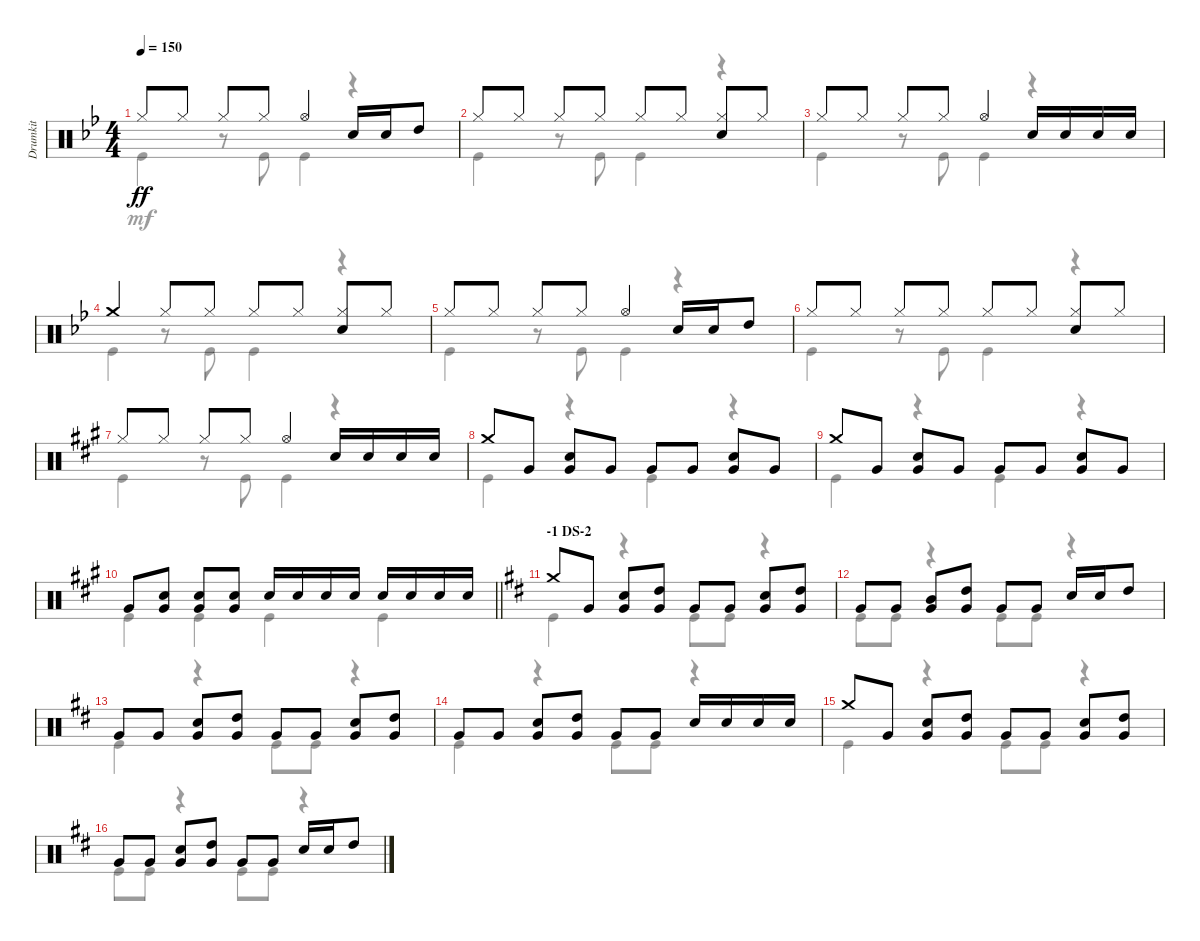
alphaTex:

\track ("Drumkit" "Drumkit") {instrument percussion}
\staff {score}
\articulation defaults
\voice
\ts (4 4)
\tempo 150
\clef neutral
\ks bb "Hi-Hat (closed)".8{dy ff} "Hi-Hat (closed)".8 "Hi-Hat (closed)".8 "Hi-Hat (closed)".8 "Hi-Hat (open)".4 "Snare (hit) 2".16 "Snare (hit) 2".16 "High Tom (hit)".8
|
"Hi-Hat (closed)".8 "Hi-Hat (closed)".8 "Hi-Hat (closed)".8 "Hi-Hat (closed)".8 "Hi-Hat (closed)".8 "Hi-Hat (closed)".8 ("Hi-Hat (closed)" "Snare (hit) 2").8 "Hi-Hat (closed)".8 |
"Hi-Hat (closed)".8 "Hi-Hat (closed)".8 "Hi-Hat (closed)".8 "Hi-Hat (closed)".8 "Hi-Hat (open)".4 "Snare (hit) 2".16 "Snare (hit) 2".16 "Snare (hit) 2".16 "Snare (hit) 2".16 |
"Crash medium (hit)".4 "Hi-Hat (closed)".8 "Hi-Hat (closed)".8 "Hi-Hat (closed)".8 "Hi-Hat (closed)".8 ("Hi-Hat (closed)" "Snare (hit) 2").8 "Hi-Hat (closed)".8 |
"Hi-Hat (closed)".8 "Hi-Hat (closed)".8 "Hi-Hat (closed)".8 "Hi-Hat (closed)".8 "Hi-Hat (open)".4 "Snare (hit) 2".16 "Snare (hit) 2".16 "High Tom (hit)".8 |
"Hi-Hat (closed)".8 "Hi-Hat (closed)".8 "Hi-Hat (closed)".8 "Hi-Hat (closed)".8 "Hi-Hat (closed)".8 "Hi-Hat (closed)".8 ("Hi-Hat (closed)" "Snare (hit) 2").8 "Hi-Hat (closed)".8 |
\ks a "Hi-Hat (closed)".8 "Hi-Hat (closed)".8 "Hi-Hat (closed)".8 "Hi-Hat (closed)".8 "Hi-Hat (open)".4 "Snare (hit) 2".16 "Snare (hit) 2".16 "Snare (hit) 2".16 "Snare (hit) 2".16
|
"Crash medium (hit)".8 "Very Low Tom (hit)".8 ("Very Low Tom (hit)" "Snare (hit) 2").8 "Very Low Tom (hit)".8 "Very Low Tom (hit)".8 "Very Low Tom (hit)".8 ("Very Low Tom (hit)" "Snare (hit) 2").8 "Very Low Tom (hit)".8 |
"Crash medium (hit)".8 "Very Low Tom (hit)".8 ("Very Low Tom (hit)" "Snare (hit) 2").8 "Very Low Tom (hit)".8 "Very Low Tom (hit)".8 "Very Low Tom (hit)".8 ("Very Low Tom (hit)" "Snare (hit) 2").8 "Very Low Tom (hit)".8 |
\barLineRight lightlight "Very Low Tom (hit)".8
("Very Low Tom (hit)" "Snare (hit) 2").8 ("Very Low Tom (hit)" "Snare (hit) 2").8 ("Very Low Tom (hit)" "Snare (hit) 2").8 "Snare (hit) 2".16 "Snare (hit) 2".16 "Snare (hit) 2".16 "Snare (hit) 2".16 "Snare (hit) 2".16 "Snare (hit) 2".16 "Snare (hit) 2".16 "Snare (hit) 2".16 |
\section ("" "-1 DS-2")
\ks d "Crash medium (hit)".8 "Very Low Tom (hit)".8
("Very Low Tom (hit)" "Snare (hit) 2").8 ("Very Low Tom (hit)" "High Tom (hit)").8 "Very Low Tom (hit)".8 "Very Low Tom (hit)".8 ("Very Low Tom (hit)" "Snare (hit) 2").8 ("Very Low Tom (hit)" "High Tom (hit)").8 |
"Very Low Tom (hit)".8 "Very Low Tom (hit)".8 ("Very Low Tom (hit)" "Mid Tom (hit)").8 ("Very Low Tom (hit)" "High Tom (hit)").8 "Very Low Tom (hit)".8 "Very Low Tom (hit)".8 "Snare (hit) 2".16 "Snare (hit) 2".16 "High Tom (hit)".8 |
"Very Low Tom (hit)".8 "Very Low Tom (hit)".8 ("Very Low Tom (hit)" "Snare (hit) 2").8 ("Very Low Tom (hit)" "High Tom (hit)").8 "Very Low Tom (hit)".8 "Very Low Tom (hit)".8 ("Very Low Tom (hit)" "Snare (hit) 2").8 ("Very Low Tom (hit)" "High Tom (hit)").8 |
"Very Low Tom (hit)".8 "Very Low Tom (hit)".8 ("Very Low Tom (hit)" "Snare (hit) 2").8 ("Very Low Tom (hit)" "High Tom (hit)").8 "Very Low Tom (hit)".8 "Very Low Tom (hit)".8 "Snare (hit) 2".16 "Snare (hit) 2".16 "Snare (hit) 2".16 "Snare (hit) 2".16 |
"Crash medium (hit)".8 "Very Low Tom (hit)".8 ("Very Low Tom (hit)" "Snare (hit) 2").8 ("Very Low Tom (hit)" "High Tom (hit)").8 "Very Low Tom (hit)".8 "Very Low Tom (hit)".8 ("Very Low Tom (hit)" "Snare (hit) 2").8 ("Very Low Tom (hit)" "High Tom (hit)").8 |
"Very Low Tom (hit)".8 "Very Low Tom (hit)".8 ("Very Low Tom (hit)" "Snare (hit) 2").8 ("Very Low Tom (hit)" "High Tom (hit)").8 "Very Low Tom (hit)".8 "Very Low Tom (hit)".8 "Snare (hit) 2".16 "Snare (hit) 2".16 "High Tom (hit)".8
\voice
\clef neutral
\ottava regular
\simile none
\ks bb "Kick (hit)".4{dy mf}
r.8 "Kick (hit)".8 "Kick (hit)".4 r.4 |
"Kick (hit)".4 r.8 "Kick (hit)".8 "Kick (hit)".4 r.4 |
"Kick (hit)".4 r.8 "Kick (hit)".8 "Kick (hit)".4 r.4 |
"Kick (hit)".4 r.8 "Kick (hit)".8 "Kick (hit)".4 r.4 |
"Kick (hit)".4 r.8 "Kick (hit)".8 "Kick (hit)".4 r.4 |
"Kick (hit)".4 r.8 "Kick (hit)".8 "Kick (hit)".4 r.4 |
\ks a "Kick (hit)".4
r.8 "Kick (hit)".8 "Kick (hit)".4 r.4 |
"Kick (hit)".4 r.4 "Kick (hit)".4 r.4 |
"Kick (hit)".4 r.4 "Kick (hit)".4 r.4 |
\barLineRight lightlight "Kick (hit)".4 "Kick (hit)".4 "Kick (hit)".4 "Kick (hit)".4
|
\ks d "Kick (hit)".4
r.4 "Kick (hit)".8 "Kick (hit)".8 r.4 |
"Kick (hit)".8 "Kick (hit)".8 r.4 "Kick (hit)".8 "Kick (hit)".8 r.4 |
"Kick (hit)".4 r.4 "Kick (hit)".8 "Kick (hit)".8 r.4 |
"Kick (hit)".4 r.4 "Kick (hit)".8 "Kick (hit)".8 r.4 |
"Kick (hit)".4 r.4 "Kick (hit)".8 "Kick (hit)".8 r.4 |
"Kick (hit)".8 "Kick (hit)".8 r.4 "Kick (hit)".8 "Kick (hit)".8 r.4
